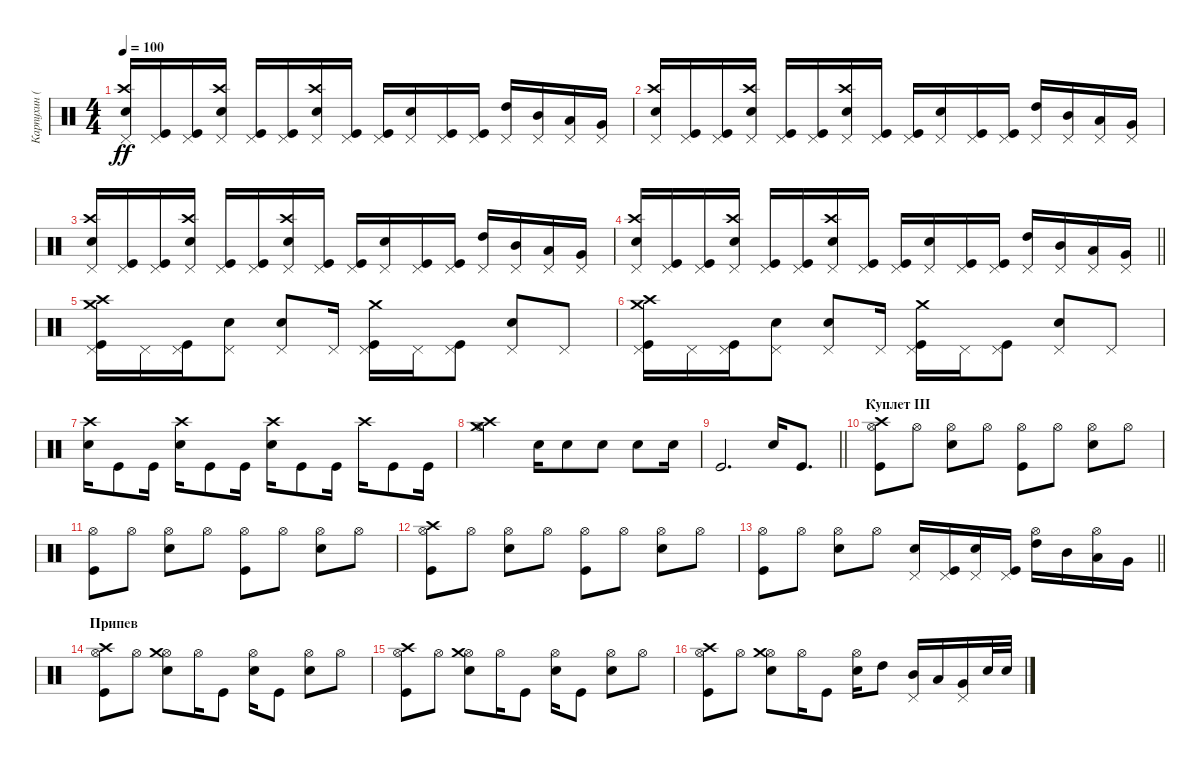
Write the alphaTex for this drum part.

\track ("Карпухин (ударные)" "Карпухин (") {instrument percussion}
\staff {score}
\articulation defaults
\ts (4 4)
\tempo 100
\clef neutral
\ks c
("Pedal Hi-Hat (hit)" "Crash high (hit)" "Snare (hit) 2").16{dy ff} ("Pedal Hi-Hat (hit)" "Kick (hit)").16 ("Pedal Hi-Hat (hit)" "Kick (hit)").16 ("Pedal Hi-Hat (hit)" "Crash high (hit)" "Snare (hit) 2").16 ("Pedal Hi-Hat (hit)" "Kick (hit)").16 ("Pedal Hi-Hat (hit)" "Kick (hit)").16 ("Pedal Hi-Hat (hit)" "Crash high (hit)" "Snare (hit) 2").16 ("Pedal Hi-Hat (hit)" "Kick (hit)").16 ("Pedal Hi-Hat (hit)" "Kick (hit)").16 ("Pedal Hi-Hat (hit)" "Snare (hit) 2").16 ("Pedal Hi-Hat (hit)" "Kick (hit)").16 ("Pedal Hi-Hat (hit)" "Kick (hit)").16 ("High Tom (hit)" "Pedal Hi-Hat (hit)").16 ("Mid Tom (hit)" "Pedal Hi-Hat (hit)").16 ("Low Tom (hit)" "Pedal Hi-Hat (hit)").16 ("Very Low Tom (hit)" "Pedal Hi-Hat (hit)").16 |
("Pedal Hi-Hat (hit)" "Crash high (hit)" "Snare (hit) 2").16 ("Pedal Hi-Hat (hit)" "Kick (hit)").16 ("Pedal Hi-Hat (hit)" "Kick (hit)").16 ("Pedal Hi-Hat (hit)" "Crash high (hit)" "Snare (hit) 2").16 ("Pedal Hi-Hat (hit)" "Kick (hit)").16 ("Pedal Hi-Hat (hit)" "Kick (hit)").16 ("Pedal Hi-Hat (hit)" "Crash high (hit)" "Snare (hit) 2").16 ("Pedal Hi-Hat (hit)" "Kick (hit)").16 ("Pedal Hi-Hat (hit)" "Kick (hit)").16 ("Pedal Hi-Hat (hit)" "Snare (hit) 2").16 ("Pedal Hi-Hat (hit)" "Kick (hit)").16 ("Pedal Hi-Hat (hit)" "Kick (hit)").16 ("High Tom (hit)" "Pedal Hi-Hat (hit)").16 ("Mid Tom (hit)" "Pedal Hi-Hat (hit)").16 ("Low Tom (hit)" "Pedal Hi-Hat (hit)").16 ("Very Low Tom (hit)" "Pedal Hi-Hat (hit)").16 |
("Pedal Hi-Hat (hit)" "Crash high (hit)" "Snare (hit) 2").16 ("Pedal Hi-Hat (hit)" "Kick (hit)").16 ("Pedal Hi-Hat (hit)" "Kick (hit)").16 ("Pedal Hi-Hat (hit)" "Crash high (hit)" "Snare (hit) 2").16 ("Pedal Hi-Hat (hit)" "Kick (hit)").16 ("Pedal Hi-Hat (hit)" "Kick (hit)").16 ("Pedal Hi-Hat (hit)" "Crash high (hit)" "Snare (hit) 2").16 ("Pedal Hi-Hat (hit)" "Kick (hit)").16 ("Pedal Hi-Hat (hit)" "Kick (hit)").16 ("Pedal Hi-Hat (hit)" "Snare (hit) 2").16 ("Pedal Hi-Hat (hit)" "Kick (hit)").16 ("Pedal Hi-Hat (hit)" "Kick (hit)").16 ("High Tom (hit)" "Pedal Hi-Hat (hit)").16 ("Mid Tom (hit)" "Pedal Hi-Hat (hit)").16 ("Low Tom (hit)" "Pedal Hi-Hat (hit)").16 ("Very Low Tom (hit)" "Pedal Hi-Hat (hit)").16 |
\barLineRight lightlight
("Pedal Hi-Hat (hit)" "Crash high (hit)" "Snare (hit) 2").16 ("Pedal Hi-Hat (hit)" "Kick (hit)").16 ("Pedal Hi-Hat (hit)" "Kick (hit)").16 ("Pedal Hi-Hat (hit)" "Crash high (hit)" "Snare (hit) 2").16 ("Pedal Hi-Hat (hit)" "Kick (hit)").16 ("Pedal Hi-Hat (hit)" "Kick (hit)").16 ("Pedal Hi-Hat (hit)" "Crash high (hit)" "Snare (hit) 2").16 ("Pedal Hi-Hat (hit)" "Kick (hit)").16 ("Pedal Hi-Hat (hit)" "Kick (hit)").16 ("Pedal Hi-Hat (hit)" "Snare (hit) 2").16 ("Pedal Hi-Hat (hit)" "Kick (hit)").16 ("Pedal Hi-Hat (hit)" "Kick (hit)").16 ("High Tom (hit)" "Pedal Hi-Hat (hit)").16 ("Mid Tom (hit)" "Pedal Hi-Hat (hit)").16 ("Low Tom (hit)" "Pedal Hi-Hat (hit)").16 ("Very Low Tom (hit)" "Pedal Hi-Hat (hit)").16 |
("Pedal Hi-Hat (hit)" "Kick (hit)" "Crash high (hit)" "Crash medium (hit)").16 "Pedal Hi-Hat (hit)".16 ("Pedal Hi-Hat (hit)" "Kick (hit)").16 ("Pedal Hi-Hat (hit)" "Snare (hit) 2").8 ("Pedal Hi-Hat (hit)" "Snare (hit) 2").8 "Pedal Hi-Hat (hit)".16 ("Pedal Hi-Hat (hit)" "Kick (hit)" "Crash medium (hit)").16 "Pedal Hi-Hat (hit)".16 ("Pedal Hi-Hat (hit)" "Kick (hit)").8 ("Pedal Hi-Hat (hit)" "Snare (hit) 2").8 "Pedal Hi-Hat (hit)".8 |
("Pedal Hi-Hat (hit)" "Kick (hit)" "Crash high (hit)" "Crash medium (hit)").16 "Pedal Hi-Hat (hit)".16 ("Pedal Hi-Hat (hit)" "Kick (hit)").16 ("Pedal Hi-Hat (hit)" "Snare (hit) 2").8 ("Pedal Hi-Hat (hit)" "Snare (hit) 2").8 "Pedal Hi-Hat (hit)".16 ("Pedal Hi-Hat (hit)" "Kick (hit)" "Crash medium (hit)").16 "Pedal Hi-Hat (hit)".16 ("Pedal Hi-Hat (hit)" "Kick (hit)").8 ("Pedal Hi-Hat (hit)" "Snare (hit) 2").8 "Pedal Hi-Hat (hit)".8 |
("Snare (hit) 2" "Crash high (hit)").16 "Kick (hit)".8 "Kick (hit)".16 ("Snare (hit) 2" "Crash high (hit)").16 "Kick (hit)".8 "Kick (hit)".16 ("Snare (hit) 2" "Crash high (hit)").16 "Kick (hit)".8 "Kick (hit)".16 "Crash high (hit)".16 "Kick (hit)".8 "Kick (hit)".16 |
("Crash high (hit)" "Crash medium (hit)" "Hi-Hat (open)").2 "Snare (hit) 2".16 "Snare (hit) 2".8 "Snare (hit) 2".8 "Snare (hit) 2".8 "Snare (hit) 2".16 |
\barLineRight lightlight "Kick (hit)".2{d} "Snare (hit) 2".16 "Kick (hit)".8{d}
|
\section ("" "Куплет III")
("Hi-Hat (open)" "Kick (hit)" "Crash high (hit)").8 "Hi-Hat (open)".8 ("Hi-Hat (open)" "Snare (hit) 2").8 "Hi-Hat (open)".8 ("Hi-Hat (open)" "Kick (hit)").8 "Hi-Hat (open)".8 ("Hi-Hat (open)" "Snare (hit) 2").8 "Hi-Hat (open)".8 |
("Hi-Hat (open)" "Kick (hit)").8 "Hi-Hat (open)".8 ("Hi-Hat (open)" "Snare (hit) 2").8 "Hi-Hat (open)".8 ("Hi-Hat (open)" "Kick (hit)").8 "Hi-Hat (open)".8 ("Hi-Hat (open)" "Snare (hit) 2").8 "Hi-Hat (open)".8 |
("Hi-Hat (open)" "Kick (hit)" "Crash high (hit)").8 "Hi-Hat (open)".8 ("Hi-Hat (open)" "Snare (hit) 2").8 "Hi-Hat (open)".8 ("Hi-Hat (open)" "Kick (hit)").8 "Hi-Hat (open)".8 ("Hi-Hat (open)" "Snare (hit) 2").8 "Hi-Hat (open)".8 |
\barLineRight lightlight
("Hi-Hat (open)" "Kick (hit)").8 "Hi-Hat (open)".8 ("Hi-Hat (open)" "Snare (hit) 2").8 "Hi-Hat (open)".8 ("Pedal Hi-Hat (hit)" "Snare (hit) 2").16 ("Pedal Hi-Hat (hit)" "Kick (hit)").16 ("Pedal Hi-Hat (hit)" "Electric Snare (hit)").16 ("Pedal Hi-Hat (hit)" "Kick (hit)").16 ("Hi-Hat (open)" "High Tom (hit)").16 "Mid Tom (hit)".16 ("Hi-Hat (open)" "Low Tom (hit)").16 "Very Low Tom (hit)".16 |
\section ("" "Припев")
("Hi-Hat (open)" "Kick (hit)" "Crash high (hit)").8 "Hi-Hat (open)".8 ("Hi-Hat (open)" "Snare (hit) 2" "Crash medium (hit)").8 "Hi-Hat (open)".16 "Kick (hit)".8 ("Hi-Hat (open)" "Snare (hit) 2").16 "Kick (hit)".8 ("Hi-Hat (open)" "Snare (hit) 2").8 "Hi-Hat (open)".8 |
("Hi-Hat (open)" "Kick (hit)" "Crash high (hit)").8 "Hi-Hat (open)".8 ("Hi-Hat (open)" "Snare (hit) 2" "Crash medium (hit)").8 "Hi-Hat (open)".16 "Kick (hit)".8 ("Hi-Hat (open)" "Snare (hit) 2").16 "Kick (hit)".8 ("Hi-Hat (open)" "Snare (hit) 2").8 "Hi-Hat (open)".8 |
("Hi-Hat (open)" "Kick (hit)" "Crash high (hit)").8 "Hi-Hat (open)".8 ("Hi-Hat (open)" "Snare (hit) 2" "Crash medium (hit)").8 "Hi-Hat (open)".16 "Kick (hit)".8 ("Hi-Hat (open)" "Snare (hit) 2").16 "High Tom (hit)".8 ("Pedal Hi-Hat (hit)" "Mid Tom (hit)").16 "Low Tom (hit)".16 ("Pedal Hi-Hat (hit)" "Very Low Tom (hit)").16 "Electric Snare (hit)".32 "Snare (hit) 2".32
